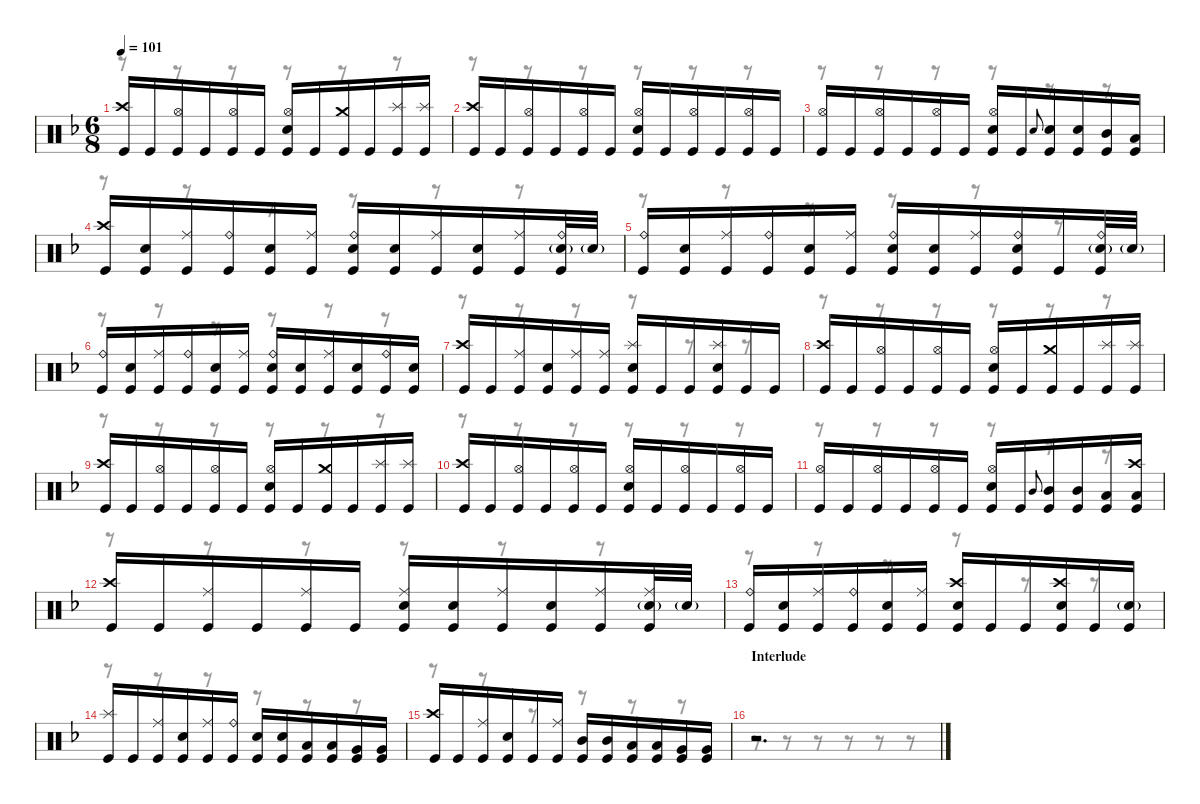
\defaultSystemsLayout 4
\hideDynamics
\bracketExtendMode nobrackets
\singleTrackTrackNamePolicy hidden
\multiTrackTrackNamePolicy hidden
\otherSystemsTrackNameOrientation horizontal
\track ("M. Lopez" "drm.") {instrument percussion}
\staff {score}
\articulation defaults
\voice
\ts (6 8)
\tempo 101
\clef neutral
\ks dminor
("Crash high (hit)"{acc forcenatural} "Kick (hit)"{acc forcenatural}).16{dy f beam Up} "Kick (hit)"{acc forcenatural}.16{beam Up} ("Hi-Hat (open)"{acc forcenatural} "Kick (hit)"{acc forcenatural}).16{beam Up} "Kick (hit)"{acc forcenatural}.16{beam Up} ("Hi-Hat (open)"{acc forcenatural} "Kick (hit)"{acc forcenatural}).16{beam Up} "Kick (hit)"{acc forcenatural}.16{beam Up} ("Hi-Hat (open)"{acc forcenatural} "Snare (hit) 2"{acc forcenatural} "Kick (hit)"{acc forcenatural}).16{beam Up} "Kick (hit)"{acc forcenatural}.16{beam Up} ("Crash medium (hit)"{acc forcenatural} "Kick (hit)"{acc forcenatural}).16{beam Up} "Kick (hit)"{acc forcenatural}.16{beam Up} ("Splash (hit)"{acc forcenatural} "Kick (hit)"{acc forcenatural}).16{beam Up} ("Splash (hit)"{acc forcenatural} "Kick (hit)"{acc forcenatural}).16{beam Up} |
("Crash high (hit)"{acc forcenatural} "Kick (hit)"{acc forcenatural}).16{beam Up} "Kick (hit)"{acc forcenatural}.16{beam Up} ("Hi-Hat (open)"{acc forcenatural} "Kick (hit)"{acc forcenatural}).16{beam Up} "Kick (hit)"{acc forcenatural}.16{beam Up} ("Hi-Hat (open)"{acc forcenatural} "Kick (hit)"{acc forcenatural}).16{beam Up} "Kick (hit)"{acc forcenatural}.16{beam Up} ("Hi-Hat (open)"{acc forcenatural} "Snare (hit) 2"{acc forcenatural} "Kick (hit)"{acc forcenatural}).16{beam Up} "Kick (hit)"{acc forcenatural}.16{beam Up} ("Hi-Hat (open)"{acc forcenatural} "Kick (hit)"{acc forcenatural}).16{beam Up} "Kick (hit)"{acc forcenatural}.16{beam Up} ("Hi-Hat (open)"{acc forcenatural} "Kick (hit)"{acc forcenatural}).16{beam Up} "Kick (hit)"{acc forcenatural}.16{beam Up} |
("Hi-Hat (open)"{acc forcenatural} "Kick (hit)"{acc forcenatural}).16{beam Up} "Kick (hit)"{acc forcenatural}.16{beam Up} ("Hi-Hat (open)"{acc forcenatural} "Kick (hit)"{acc forcenatural}).16{beam Up} "Kick (hit)"{acc forcenatural}.16{beam Up} ("Hi-Hat (open)"{acc forcenatural} "Kick (hit)"{acc forcenatural}).16{beam Up} "Kick (hit)"{acc forcenatural}.16{beam Up} ("Hi-Hat (open)"{acc forcenatural} "Snare (hit) 2"{acc forcenatural} "Kick (hit)"{acc forcenatural}).16{beam Up} "Kick (hit)"{acc forcenatural}.16{beam Up} "Electric Snare (hit)"{acc forcenatural}.8{gr onbeat dy mf beam Up} ("Snare (hit) 2"{acc forcenatural} "Kick (hit)"{acc forcenatural}).16{dy f beam Up} ("Snare (hit) 2"{acc forcenatural} "Kick (hit)"{acc forcenatural}).16{beam Up} ("Mid Tom (hit)"{acc forcenatural} "Kick (hit)"{acc forcenatural}).16{beam Up} ("Low Tom (hit)"{acc forcenatural} "Kick (hit)"{acc forcenatural}).16{beam Up} |
("Crash high (hit)"{acc forcenatural} "Kick (hit)"{acc forcenatural}).16{beam Up} ("Snare (hit) 2"{acc forcenatural} "Kick (hit)"{acc forcenatural}).16{dy mf beam Up} ("Ride (middle)"{acc forcenatural} "Kick (hit)"{acc forcenatural}).16{dy f beam Up} ("Ride (bell)"{acc forcenatural} "Kick (hit)"{acc forcenatural}).16{beam Up} ("Snare (hit) 2"{acc forcenatural} "Kick (hit)"{acc forcenatural}).16{beam Up} ("Ride (middle)"{acc forcenatural} "Kick (hit)"{acc forcenatural}).16{beam Up} ("Ride (bell)"{acc forcenatural} "Snare (hit) 2"{acc forcenatural} "Kick (hit)"{acc forcenatural}).16{beam Up} ("Snare (hit) 2"{acc forcenatural} "Kick (hit)"{acc forcenatural}).16{beam Up} ("Ride (middle)"{acc forcenatural} "Kick (hit)"{acc forcenatural}).16{beam Up} ("Snare (hit) 2"{acc forcenatural} "Kick (hit)"{acc forcenatural}).16{beam Up} ("Ride (middle)"{acc forcenatural} "Kick (hit)"{acc forcenatural}).16{beam Up} ("Ride (bell)"{acc forcenatural} "Snare (hit) 2"{g acc forcenatural} "Kick (hit)"{acc forcenatural}).32{beam Up} "Snare (hit) 2"{g acc forcenatural}.32{dy mf beam Up} |
("Ride (bell)"{acc forcenatural} "Kick (hit)"{acc forcenatural}).16{dy f beam Up} ("Snare (hit) 2"{acc forcenatural} "Kick (hit)"{acc forcenatural}).16{beam Up} ("Ride (middle)"{acc forcenatural} "Kick (hit)"{acc forcenatural}).16{beam Up} ("Ride (bell)"{acc forcenatural} "Kick (hit)"{acc forcenatural}).16{beam Up} ("Snare (hit) 2"{acc forcenatural} "Kick (hit)"{acc forcenatural}).16{beam Up} ("Ride (middle)"{acc forcenatural} "Kick (hit)"{acc forcenatural}).16{beam Up} ("Ride (bell)"{acc forcenatural} "Snare (hit) 2"{acc forcenatural} "Kick (hit)"{acc forcenatural}).16{beam Up} ("Snare (hit) 2"{acc forcenatural} "Kick (hit)"{acc forcenatural}).16{beam Up} ("Ride (middle)"{acc forcenatural} "Kick (hit)"{acc forcenatural}).16{beam Up} ("Ride (bell)"{acc forcenatural} "Snare (hit) 2"{acc forcenatural} "Kick (hit)"{acc forcenatural}).16{beam Up} "Kick (hit)"{acc forcenatural}.16{beam Up} ("Ride (bell)"{acc forcenatural} "Snare (hit) 2"{g acc forcenatural} "Kick (hit)"{acc forcenatural}).32{beam Up} "Snare (hit) 2"{g acc forcenatural}.32{dy mf beam Up} |
("Ride (bell)"{acc forcenatural} "Kick (hit)"{acc forcenatural}).16{dy f beam Up} ("Snare (hit) 2"{acc forcenatural} "Kick (hit)"{acc forcenatural}).16{dy mf beam Up} ("Ride (middle)"{acc forcenatural} "Kick (hit)"{acc forcenatural}).16{dy f beam Up} ("Ride (bell)"{acc forcenatural} "Kick (hit)"{acc forcenatural}).16{beam Up} ("Snare (hit) 2"{acc forcenatural} "Kick (hit)"{acc forcenatural}).16{beam Up} ("Ride (middle)"{acc forcenatural} "Kick (hit)"{acc forcenatural}).16{beam Up} ("Ride (bell)"{acc forcenatural} "Snare (hit) 2"{acc forcenatural} "Kick (hit)"{acc forcenatural}).16{beam Up} ("Snare (hit) 2"{acc forcenatural} "Kick (hit)"{acc forcenatural}).16{beam Up} ("Ride (middle)"{acc forcenatural} "Kick (hit)"{acc forcenatural}).16{beam Up} ("Snare (hit) 2"{acc forcenatural} "Kick (hit)"{acc forcenatural}).16{beam Up} ("Ride (bell)"{acc forcenatural} "Kick (hit)"{acc forcenatural}).16{beam Up} ("Snare (hit) 2"{acc forcenatural} "Kick (hit)"{acc forcenatural}).16{beam Up} |
("Crash high (hit)"{acc forcenatural} "Kick (hit)"{acc forcenatural}).16{beam Up} "Kick (hit)"{acc forcenatural}.16{beam Up} ("Ride (middle)"{acc forcenatural} "Kick (hit)"{acc forcenatural}).16{beam Up} ("Snare (hit) 2"{acc forcenatural} "Kick (hit)"{acc forcenatural}).16{dy mf beam Up} ("Ride (middle)"{acc forcenatural} "Kick (hit)"{acc forcenatural}).16{dy f beam Up} ("Ride (middle)"{acc forcenatural} "Kick (hit)"{acc forcenatural}).16{dy mf beam Up} ("Splash (hit)"{acc forcenatural} "Snare (hit) 2"{acc forcenatural} "Kick (hit)"{acc forcenatural}).16{dy f beam Up} "Kick (hit)"{acc forcenatural}.16{beam Up} "Kick (hit)"{acc forcenatural}.16{beam Up} ("Splash (hit)"{acc forcenatural} "Snare (hit) 2"{acc forcenatural} "Kick (hit)"{acc forcenatural}).16{beam Up} "Kick (hit)"{acc forcenatural}.16{beam Up} "Kick (hit)"{acc forcenatural}.16{beam Up} |
("Crash high (hit)"{acc forcenatural} "Kick (hit)"{acc forcenatural}).16{beam Up} "Kick (hit)"{acc forcenatural}.16{beam Up} ("Hi-Hat (open)"{acc forcenatural} "Kick (hit)"{acc forcenatural}).16{beam Up} "Kick (hit)"{acc forcenatural}.16{beam Up} ("Hi-Hat (open)"{acc forcenatural} "Kick (hit)"{acc forcenatural}).16{beam Up} "Kick (hit)"{acc forcenatural}.16{beam Up} ("Hi-Hat (open)"{acc forcenatural} "Snare (hit) 2"{acc forcenatural} "Kick (hit)"{acc forcenatural}).16{beam Up} "Kick (hit)"{acc forcenatural}.16{beam Up} ("Crash medium (hit)"{acc forcenatural} "Kick (hit)"{acc forcenatural}).16{beam Up} "Kick (hit)"{acc forcenatural}.16{beam Up} ("Splash (hit)"{acc forcenatural} "Kick (hit)"{acc forcenatural}).16{beam Up} ("Splash (hit)"{acc forcenatural} "Kick (hit)"{acc forcenatural}).16{beam Up} |
("Crash high (hit)"{acc forcenatural} "Kick (hit)"{acc forcenatural}).16{beam Up} "Kick (hit)"{acc forcenatural}.16{beam Up} ("Hi-Hat (open)"{acc forcenatural} "Kick (hit)"{acc forcenatural}).16{beam Up} "Kick (hit)"{acc forcenatural}.16{beam Up} ("Hi-Hat (open)"{acc forcenatural} "Kick (hit)"{acc forcenatural}).16{beam Up} "Kick (hit)"{acc forcenatural}.16{beam Up} ("Hi-Hat (open)"{acc forcenatural} "Snare (hit) 2"{acc forcenatural} "Kick (hit)"{acc forcenatural}).16{beam Up} "Kick (hit)"{acc forcenatural}.16{beam Up} ("Crash medium (hit)"{acc forcenatural} "Kick (hit)"{acc forcenatural}).16{beam Up} "Kick (hit)"{acc forcenatural}.16{beam Up} ("Splash (hit)"{acc forcenatural} "Kick (hit)"{acc forcenatural}).16{beam Up} ("Splash (hit)"{acc forcenatural} "Kick (hit)"{acc forcenatural}).16{beam Up} |
("Crash high (hit)"{acc forcenatural} "Kick (hit)"{acc forcenatural}).16{beam Up} "Kick (hit)"{acc forcenatural}.16{beam Up} ("Hi-Hat (open)"{acc forcenatural} "Kick (hit)"{acc forcenatural}).16{beam Up} "Kick (hit)"{acc forcenatural}.16{beam Up} ("Hi-Hat (open)"{acc forcenatural} "Kick (hit)"{acc forcenatural}).16{beam Up} "Kick (hit)"{acc forcenatural}.16{beam Up} ("Hi-Hat (open)"{acc forcenatural} "Snare (hit) 2"{acc forcenatural} "Kick (hit)"{acc forcenatural}).16{beam Up} "Kick (hit)"{acc forcenatural}.16{beam Up} ("Hi-Hat (open)"{acc forcenatural} "Kick (hit)"{acc forcenatural}).16{beam Up} "Kick (hit)"{acc forcenatural}.16{beam Up} ("Hi-Hat (open)"{acc forcenatural} "Kick (hit)"{acc forcenatural}).16{beam Up} "Kick (hit)"{acc forcenatural}.16{beam Up} |
("Hi-Hat (open)"{acc forcenatural} "Kick (hit)"{acc forcenatural}).16{beam Up} "Kick (hit)"{acc forcenatural}.16{beam Up} ("Hi-Hat (open)"{acc forcenatural} "Kick (hit)"{acc forcenatural}).16{beam Up} "Kick (hit)"{acc forcenatural}.16{beam Up} ("Hi-Hat (open)"{acc forcenatural} "Kick (hit)"{acc forcenatural}).16{beam Up} "Kick (hit)"{acc forcenatural}.16{beam Up} ("Hi-Hat (open)"{acc forcenatural} "Snare (hit) 2"{acc forcenatural} "Kick (hit)"{acc forcenatural}).16{beam Up} "Kick (hit)"{acc forcenatural}.16{beam Up} "Mid Tom (hit)"{acc forcenatural}.8{gr onbeat dy mf beam Up} ("Mid Tom (hit)"{acc forcenatural} "Kick (hit)"{acc forcenatural}).16{dy f beam Up} ("Mid Tom (hit)"{acc forcenatural} "Kick (hit)"{acc forcenatural}).16{beam Up} ("Low Tom (hit)"{acc forcenatural} "Kick (hit)"{acc forcenatural}).16{beam Up} ("Crash high (hit)"{acc forcenatural} "Low Tom (hit)"{acc forcenatural} "Kick (hit)"{acc forcenatural}).16{beam Up} |
("Crash high (hit)"{acc forcenatural} "Kick (hit)"{acc forcenatural}).16{beam Up} "Kick (hit)"{acc forcenatural}.16{beam Up} ("Ride (middle)"{acc forcenatural} "Kick (hit)"{acc forcenatural}).16{beam Up} "Kick (hit)"{acc forcenatural}.16{beam Up} ("Ride (middle)"{acc forcenatural} "Kick (hit)"{acc forcenatural}).16{beam Up} "Kick (hit)"{acc forcenatural}.16{beam Up} ("Ride (middle)"{acc forcenatural} "Snare (hit) 2"{acc forcenatural} "Kick (hit)"{acc forcenatural}).16{beam Up} ("Snare (hit) 2"{acc forcenatural} "Kick (hit)"{acc forcenatural}).16{beam Up} ("Ride (middle)"{acc forcenatural} "Kick (hit)"{acc forcenatural}).16{beam Up} ("Snare (hit) 2"{acc forcenatural} "Kick (hit)"{acc forcenatural}).16{beam Up} ("Ride (middle)"{acc forcenatural} "Kick (hit)"{acc forcenatural}).16{beam Up} ("Ride (middle)"{acc forcenatural} "Snare (hit) 2"{g acc forcenatural} "Kick (hit)"{acc forcenatural}).32{beam Up} "Snare (hit) 2"{g acc forcenatural}.32{dy mf beam Up} |
("Ride (bell)"{acc forcenatural} "Kick (hit)"{acc forcenatural}).16{dy f beam Up} ("Snare (hit) 2"{acc forcenatural} "Kick (hit)"{acc forcenatural}).16{beam Up} ("Ride (middle)"{acc forcenatural} "Kick (hit)"{acc forcenatural}).16{beam Up} ("Ride (bell)"{acc forcenatural} "Kick (hit)"{acc forcenatural}).16{beam Up} ("Snare (hit) 2"{acc forcenatural} "Kick (hit)"{acc forcenatural}).16{beam Up} ("Ride (middle)"{acc forcenatural} "Kick (hit)"{acc forcenatural}).16{beam Up} ("Crash high (hit)"{acc forcenatural} "Snare (hit) 2"{acc forcenatural} "Kick (hit)"{acc forcenatural}).16{beam Up} "Kick (hit)"{acc forcenatural}.16{beam Up} "Kick (hit)"{acc forcenatural}.16{beam Up} ("Crash high (hit)"{acc forcenatural} "Snare (hit) 2"{acc forcenatural} "Kick (hit)"{acc forcenatural}).16{beam Up} "Kick (hit)"{acc forcenatural}.16{beam Up} ("Snare (hit) 2"{g acc forcenatural} "Kick (hit)"{acc forcenatural}).16{beam Up} |
("Splash (hit)"{acc forcenatural} "Kick (hit)"{acc forcenatural}).16{beam Up} "Kick (hit)"{acc forcenatural}.16{beam Up} ("Ride (middle)"{acc forcenatural} "Kick (hit)"{acc forcenatural}).16{beam Up} ("Snare (hit) 2"{acc forcenatural} "Kick (hit)"{acc forcenatural}).16{beam Up} ("Ride (middle)"{acc forcenatural} "Kick (hit)"{acc forcenatural}).16{beam Up} ("Ride (bell)"{acc forcenatural} "Kick (hit)"{acc forcenatural}).16{beam Up} ("Snare (hit) 2"{acc forcenatural} "Kick (hit)"{acc forcenatural}).16{beam Up} ("Snare (hit) 2"{acc forcenatural} "Kick (hit)"{acc forcenatural}).16{beam Up} ("Low Tom (hit)"{acc forcenatural} "Kick (hit)"{acc forcenatural}).16{beam Up} ("Low Tom (hit)"{acc forcenatural} "Kick (hit)"{acc forcenatural}).16{beam Up} ("Very Low Tom (hit)"{acc forcenatural} "Kick (hit)"{acc forcenatural}).16{beam Up} ("Very Low Tom (hit)"{acc forcenatural} "Kick (hit)"{acc forcenatural}).16{beam Up} |
("Crash high (hit)"{acc forcenatural} "Kick (hit)"{acc forcenatural}).16{beam Up} "Kick (hit)"{acc forcenatural}.16{beam Up} ("Ride (middle)"{acc forcenatural} "Kick (hit)"{acc forcenatural}).16{beam Up} ("Snare (hit) 2"{acc forcenatural} "Kick (hit)"{acc forcenatural}).16{dy mf beam Up} "Kick (hit)"{acc forcenatural}.16{dy f beam Up} ("Ride (middle)"{acc forcenatural} "Kick (hit)"{acc forcenatural}).16{dy mf beam Up} ("Mid Tom (hit)"{acc forcenatural} "Kick (hit)"{acc forcenatural}).16{beam Up} ("Mid Tom (hit)"{acc forcenatural} "Kick (hit)"{acc forcenatural}).16{beam Up} ("Low Tom (hit)"{acc forcenatural} "Kick (hit)"{acc forcenatural}).16{beam Up} ("Low Tom (hit)"{acc forcenatural} "Kick (hit)"{acc forcenatural}).16{beam Up} ("Very Low Tom (hit)"{acc forcenatural} "Kick (hit)"{acc forcenatural}).16{beam Up} ("Very Low Tom (hit)"{acc forcenatural} "Kick (hit)"{acc forcenatural}).16{beam Up} |
\section ("" "Interlude")
r.2{d beam Up}
\voice
\clef neutral
\ottava regular
\simile none
\ks dminor
r.8{dy mf beam Down} r.8{beam Down} r.8{beam Down} r.8{beam Down} r.8{beam Down} r.8{beam Down} |
r.8{beam Down} r.8{beam Down} r.8{beam Down} r.8{beam Down} r.8{beam Down} r.8{beam Down} |
r.8{beam Down} r.8{beam Down} r.8{beam Down} r.8{beam Down} r.8{beam Down} r.8{beam Down} |
r.8{beam Down} r.8{beam Down} r.8{beam Down} r.8{beam Down} r.8{beam Down} r.8{beam Down} |
r.8{beam Down} r.8{beam Down} r.8{beam Down} r.8{beam Down} r.8{beam Down} r.8{beam Down} |
r.8{beam Down} r.8{beam Down} r.8{beam Down} r.8{beam Down} r.8{beam Down} r.8{beam Down} |
r.8{beam Down} r.8{beam Down} r.8{beam Down} r.8{beam Down} r.8{beam Down} r.8{beam Down} |
r.8{beam Down} r.8{beam Down} r.8{beam Down} r.8{beam Down} r.8{beam Down} r.8{beam Down} |
r.8{beam Down} r.8{beam Down} r.8{beam Down} r.8{beam Down} r.8{beam Down} r.8{beam Down} |
r.8{beam Down} r.8{beam Down} r.8{beam Down} r.8{beam Down} r.8{beam Down} r.8{beam Down} |
r.8{beam Down} r.8{beam Down} r.8{beam Down} r.8{beam Down} r.8{beam Down} r.8{beam Down} |
r.8{beam Down} r.8{beam Down} r.8{beam Down} r.8{beam Down} r.8{beam Down} r.8{beam Down} |
r.8{beam Down} r.8{beam Down} r.8{beam Down} r.8{beam Down} r.8{beam Down} r.8{beam Down} |
r.8{beam Down} r.8{beam Down} r.8{beam Down} r.8{beam Down} r.8{beam Down} r.8{beam Down} |
r.8{beam Down} r.8{beam Down} r.8{beam Down} r.8{beam Down} r.8{beam Down} r.8{beam Down} |
r.8{beam Down} r.8{beam Down} r.8{beam Down} r.8{beam Down} r.8{beam Down} r.8{beam Down}
